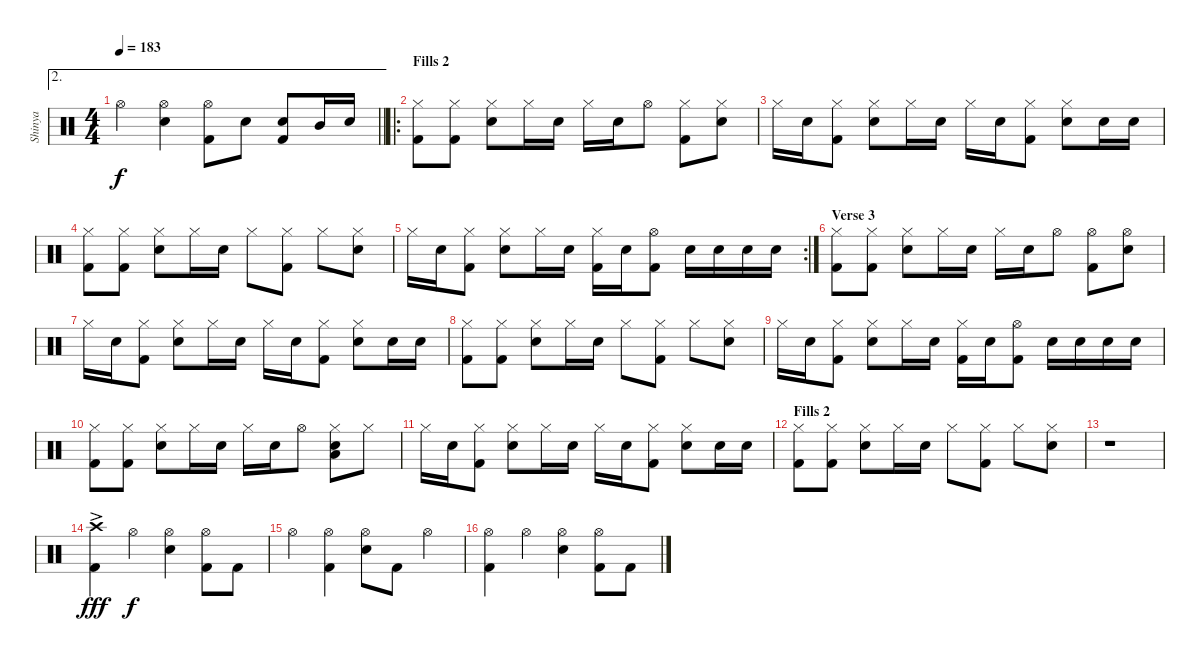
\track ("Shinya" "Shinya") {instrument percussion}
\staff {score}
\articulation defaults
\ae 2
\ts (4 4)
\tempo 183
\clef neutral
\barLineRight lightlight
\ks c "Hi-Hat (open)".4{dy f}
("Hi-Hat (open)" "Snare (hit) 2").4 ("Hi-Hat (open)" "Kick (hit) 2").8 "Snare (hit) 2".8 ("Snare (hit) 2" "Kick (hit) 2").8 "Mid Tom (hit)".16 "Snare (hit) 2".16 |
\ro
\section ("" "Fills 2")
("Hi-Hat (closed)" "Kick (hit) 2").8 ("Hi-Hat (closed)" "Kick (hit) 2").8 ("Hi-Hat (closed)" "Snare (hit) 2").8 "Hi-Hat (closed)".16 "Snare (hit) 2".16 "Hi-Hat (closed)".16 "Snare (hit) 2".16 "Hi-Hat (open)".8 ("Hi-Hat (closed)" "Kick (hit) 2").8 ("Hi-Hat (closed)" "Snare (hit) 2").8 |
"Hi-Hat (closed)".16 "Snare (hit) 2".16 ("Hi-Hat (closed)" "Kick (hit) 2").8 ("Hi-Hat (closed)" "Snare (hit) 2").8 "Hi-Hat (closed)".16 "Snare (hit) 2".16 "Hi-Hat (closed)".16 "Snare (hit) 2".16 ("Hi-Hat (closed)" "Kick (hit) 2").8 ("Hi-Hat (closed)" "Snare (hit) 2").8 "Snare (hit) 2".16 "Snare (hit) 2".16 |
("Hi-Hat (closed)" "Kick (hit) 2").8 ("Hi-Hat (closed)" "Kick (hit) 2").8 ("Hi-Hat (closed)" "Snare (hit) 2").8 "Hi-Hat (closed)".16 "Snare (hit) 2".16 "Hi-Hat (closed)".8 ("Hi-Hat (closed)" "Kick (hit) 2").8 "Hi-Hat (closed)".8 ("Hi-Hat (closed)" "Snare (hit) 2").8 |
\rc 2 "Hi-Hat (closed)".16 "Snare (hit) 2".16
("Hi-Hat (closed)" "Kick (hit) 2").8 ("Hi-Hat (closed)" "Snare (hit) 2").8 "Hi-Hat (closed)".16 "Snare (hit) 2".16 ("Hi-Hat (closed)" "Kick (hit) 2").16 "Snare (hit) 2".16 ("Hi-Hat (open)" "Kick (hit) 2").8 "Snare (hit) 2".16 "Snare (hit) 2".16 "Snare (hit) 2".16 "Snare (hit) 2".16 |
\section ("" "Verse 3")
("Hi-Hat (closed)" "Kick (hit) 2").8 ("Hi-Hat (closed)" "Kick (hit) 2").8 ("Hi-Hat (closed)" "Snare (hit) 2").8 "Hi-Hat (closed)".16 "Snare (hit) 2".16 "Hi-Hat (closed)".16 "Snare (hit) 2".16 "Hi-Hat (open)".8 ("Hi-Hat (open)" "Kick (hit) 2").8 ("Hi-Hat (open)" "Snare (hit) 2").8 |
"Hi-Hat (closed)".16 "Snare (hit) 2".16 ("Hi-Hat (closed)" "Kick (hit) 2").8 ("Hi-Hat (closed)" "Snare (hit) 2").8 "Hi-Hat (closed)".16 "Snare (hit) 2".16 "Hi-Hat (closed)".16 "Snare (hit) 2".16 ("Hi-Hat (closed)" "Kick (hit) 2").8 ("Hi-Hat (closed)" "Snare (hit) 2").8 "Snare (hit) 2".16 "Snare (hit) 2".16 |
("Hi-Hat (closed)" "Kick (hit) 2").8 ("Hi-Hat (closed)" "Kick (hit) 2").8 ("Hi-Hat (closed)" "Snare (hit) 2").8 "Hi-Hat (closed)".16 "Snare (hit) 2".16 "Hi-Hat (closed)".8 ("Hi-Hat (closed)" "Kick (hit) 2").8 "Hi-Hat (closed)".8 ("Hi-Hat (closed)" "Snare (hit) 2").8 |
"Hi-Hat (closed)".16 "Snare (hit) 2".16 ("Hi-Hat (closed)" "Kick (hit) 2").8 ("Hi-Hat (closed)" "Snare (hit) 2").8 "Hi-Hat (closed)".16 "Snare (hit) 2".16 ("Hi-Hat (closed)" "Kick (hit) 2").16 "Snare (hit) 2".16 ("Hi-Hat (open)" "Kick (hit) 2").8 "Snare (hit) 2".16 "Snare (hit) 2".16 "Snare (hit) 2".16 "Snare (hit) 2".16 |
("Hi-Hat (closed)" "Kick (hit) 2").8 ("Hi-Hat (closed)" "Kick (hit) 2").8 ("Hi-Hat (closed)" "Snare (hit) 2").8 "Hi-Hat (closed)".16 "Snare (hit) 2".16 "Hi-Hat (closed)".16 "Snare (hit) 2".16 "Hi-Hat (open)".8 ("Hi-Hat (closed)" "Snare (hit) 2" "Low Floor Tom (hit)").8 "Hi-Hat (closed)".8 |
"Hi-Hat (closed)".16 "Snare (hit) 2".16 ("Hi-Hat (closed)" "Kick (hit) 2").8 ("Hi-Hat (closed)" "Snare (hit) 2").8 "Hi-Hat (closed)".16 "Snare (hit) 2".16 "Hi-Hat (closed)".16 "Snare (hit) 2".16 ("Hi-Hat (closed)" "Kick (hit) 2").8 ("Hi-Hat (closed)" "Snare (hit) 2").8 "Snare (hit) 2".16 "Snare (hit) 2".16 |
\section ("" "Fills 2")
("Hi-Hat (closed)" "Kick (hit) 2").8 ("Hi-Hat (closed)" "Kick (hit) 2").8 ("Hi-Hat (closed)" "Snare (hit) 2").8 "Hi-Hat (closed)".16 "Snare (hit) 2".16 "Hi-Hat (closed)".8 ("Hi-Hat (closed)" "Kick (hit) 2").8 "Hi-Hat (closed)".8 ("Hi-Hat (closed)" "Snare (hit) 2").8 |
r.1 |
("Crash high (hit)"{ac} "Kick (hit) 2").4{dy fff} "Hi-Hat (open)".4{dy f} ("Hi-Hat (open)" "Snare (hit) 2").4 ("Hi-Hat (open)" "Kick (hit) 2").8 "Kick (hit) 2".8 |
"Hi-Hat (open)".4 ("Hi-Hat (open)" "Kick (hit) 2").4 ("Hi-Hat (open)" "Snare (hit) 2").8 "Kick (hit) 2".8 "Hi-Hat (open)".4 |
("Hi-Hat (open)" "Kick (hit) 2").4 "Hi-Hat (open)".4 ("Hi-Hat (open)" "Snare (hit) 2").4 ("Hi-Hat (open)" "Kick (hit) 2").8 "Kick (hit) 2".8
